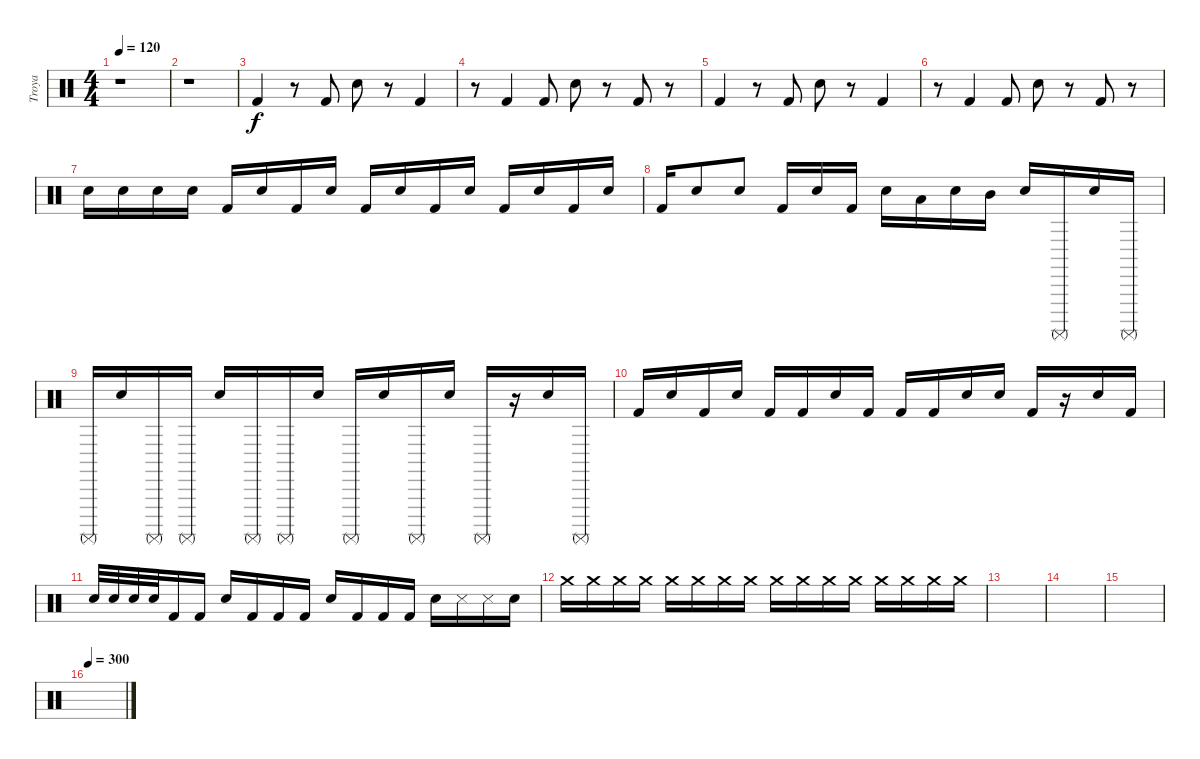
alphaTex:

\track ("Troya" "Troya") {instrument percussion}
\staff {score}
\articulation defaults
\ts (4 4)
\tempo 120
\clef neutral
\ks c
r.1{dy f} |
r.1 |
"Kick (hit) 2".4 r.8 "Kick (hit) 2".8 "Snare (hit) 2".8 r.8 "Kick (hit) 2".4 |
r.8 "Kick (hit) 2".4 "Kick (hit) 2".8 "Snare (hit) 2".8 r.8 "Kick (hit) 2".8 r.8 |
"Kick (hit) 2".4 r.8 "Kick (hit) 2".8 "Snare (hit) 2".8 r.8 "Kick (hit) 2".4 |
r.8 "Kick (hit) 2".4 "Kick (hit) 2".8 "Snare (hit) 2".8 r.8 "Kick (hit) 2".8 r.8 |
"Snare (hit) 2".16 "Snare (hit) 2".16 "Snare (hit) 2".16 "Snare (hit) 2".16 "Kick (hit) 2".16 "Snare (hit) 2".16 "Kick (hit) 2".16 "Snare (hit) 2".16 "Kick (hit) 2".16 "Snare (hit) 2".16 "Kick (hit) 2".16 "Snare (hit) 2".16 "Kick (hit) 2".16 "Snare (hit) 2".16 "Kick (hit) 2".16 "Snare (hit) 2".16 |
"Kick (hit) 2".16 "Snare (hit) 2".8 "Snare (hit) 2".8 "Kick (hit) 2".16 "Snare (hit) 2".16 "Kick (hit) 2".16 "Snare (hit) 2".16 "Low Tom (hit)".16 "Snare (hit) 2".16 "Mid Tom (hit)".16 "Electric Snare (hit)".16 "Surdo (mute)".16 "Electric Snare (hit)".16 "Surdo (mute)".16 |
"Surdo (mute)".16 "Electric Snare (hit)".16 "Surdo (mute)".16 "Surdo (mute)".16 "Electric Snare (hit)".16 "Surdo (mute)".16 "Surdo (mute)".16 "Electric Snare (hit)".16 "Surdo (mute)".16 "Electric Snare (hit)".16 "Surdo (mute)".16 "Electric Snare (hit)".16 "Surdo (mute)".16 r.16 "Electric Snare (hit)".16 "Surdo (mute)".16 |
"Kick (hit) 2".16 "Snare (hit) 2".16 "Kick (hit) 2".16 "Snare (hit) 2".16 "Kick (hit) 2".16 "Kick (hit) 2".16 "Snare (hit) 2".16 "Kick (hit) 2".16 "Kick (hit) 2".16 "Kick (hit) 2".16 "Snare (hit) 2".16 "Snare (hit) 2".16 "Kick (hit) 2".16 r.16 "Snare (hit) 2".16 "Kick (hit) 2".16 |
"Snare (hit) 2".32 "Snare (hit) 2".32 "Snare (hit) 2".32 "Snare (hit) 2".32 "Kick (hit) 2".16 "Kick (hit) 2".16 "Snare (hit) 2".16 "Kick (hit) 2".16 "Kick (hit) 2".16 "Kick (hit) 2".16 "Snare (hit) 2".16 "Kick (hit) 2".16 "Kick (hit) 2".16 "Kick (hit) 2".16 "Snare (hit) 2".16 "Metronome (hit)".16 "Metronome (hit)".16 "Snare (hit) 2".16 |
"Crash medium (hit)".16{volume 0} "Crash medium (hit)".16 "Crash medium (hit)".16 "Crash medium (hit)".16 "Crash medium (hit)".16 "Crash medium (hit)".16 "Crash medium (hit)".16 "Crash medium (hit)".16 "Crash medium (hit)".16 "Crash medium (hit)".16 "Crash medium (hit)".16 "Crash medium (hit)".16 "Crash medium (hit)".16 "Crash medium (hit)".16 "Crash medium (hit)".16 "Crash medium (hit)".16 |
|
|
|
\tempo 300
